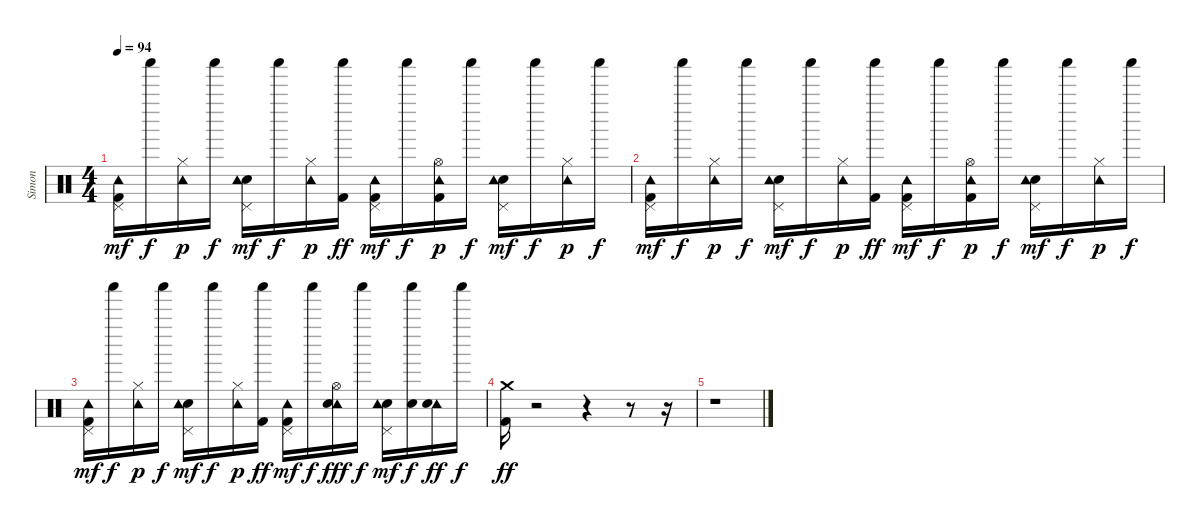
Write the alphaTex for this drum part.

\track ("Simon" "Simon") {instrument percussion}
\staff {score}
\articulation defaults
\ts (4 4)
\tempo 94
\clef neutral
\ks c
("Kick (hit) 2" "Pedal Hi-Hat (hit)" "Tambourine (hit)").16{dy mf} "Shaker (hit)".16{dy f} ("Hi-Hat (closed)" "Tambourine (hit)").16{dy p} "Shaker (hit)".16{dy f} ("Snare (hit) 2" "Pedal Hi-Hat (hit)" "Tambourine (hit)").16{dy mf} "Shaker (hit)".16{dy f} ("Hi-Hat (closed)" "Tambourine (hit)").16{dy p} ("Shaker (hit)" "Kick (hit) 2").16{dy ff} ("Kick (hit) 2" "Pedal Hi-Hat (hit)" "Tambourine (hit)").16{dy mf} "Shaker (hit)".16{dy f} ("Kick (hit) 2" "Hi-Hat (open)" "Tambourine (hit)").16{dy p} "Shaker (hit)".16{dy f} ("Snare (hit) 2" "Pedal Hi-Hat (hit)" "Tambourine (hit)").16{dy mf} "Shaker (hit)".16{dy f} ("Hi-Hat (closed)" "Tambourine (hit)").16{dy p} "Shaker (hit)".16{dy f} |
("Kick (hit) 2" "Tambourine (hit)" "Pedal Hi-Hat (hit)").16{dy mf} "Shaker (hit)".16{dy f} ("Hi-Hat (closed)" "Tambourine (hit)").16{dy p} "Shaker (hit)".16{dy f} ("Snare (hit) 2" "Pedal Hi-Hat (hit)" "Tambourine (hit)").16{dy mf} "Shaker (hit)".16{dy f} ("Hi-Hat (closed)" "Tambourine (hit)").16{dy p} ("Shaker (hit)" "Kick (hit) 2").16{dy ff} ("Kick (hit) 2" "Pedal Hi-Hat (hit)" "Tambourine (hit)").16{dy mf} "Shaker (hit)".16{dy f} ("Kick (hit) 2" "Hi-Hat (open)" "Tambourine (hit)").16{dy p} "Shaker (hit)".16{dy f} ("Snare (hit) 2" "Pedal Hi-Hat (hit)" "Tambourine (hit)").16{dy mf} "Shaker (hit)".16{dy f} ("Hi-Hat (closed)" "Tambourine (hit)").16{dy p} "Shaker (hit)".16{dy f} |
("Kick (hit) 2" "Pedal Hi-Hat (hit)" "Tambourine (hit)").16{dy mf} "Shaker (hit)".16{dy f} ("Hi-Hat (closed)" "Tambourine (hit)").16{dy p} "Shaker (hit)".16{dy f} ("Snare (hit) 2" "Pedal Hi-Hat (hit)" "Tambourine (hit)").16{dy mf} "Shaker (hit)".16{dy f} ("Hi-Hat (closed)" "Tambourine (hit)").16{dy p} ("Shaker (hit)" "Kick (hit) 2").16{dy ff} ("Kick (hit) 2" "Pedal Hi-Hat (hit)" "Tambourine (hit)").16{dy mf} "Shaker (hit)".16{dy f} ("Hi-Hat (open)" "Tambourine (hit)" "Snare (hit) 2").16{dy fff} "Shaker (hit)".16{dy f} ("Snare (hit) 2" "Pedal Hi-Hat (hit)" "Tambourine (hit)").16{dy mf} ("Shaker (hit)" "Snare (hit) 2").16{dy f} ("Tambourine (hit)" "Snare (hit) 2").16{dy ff} "Shaker (hit)".16{dy f} |
("Kick (hit) 2" "Crash medium (hit)").16{dy ff} r.2 r.4 r.8 r.16 |
r.1
